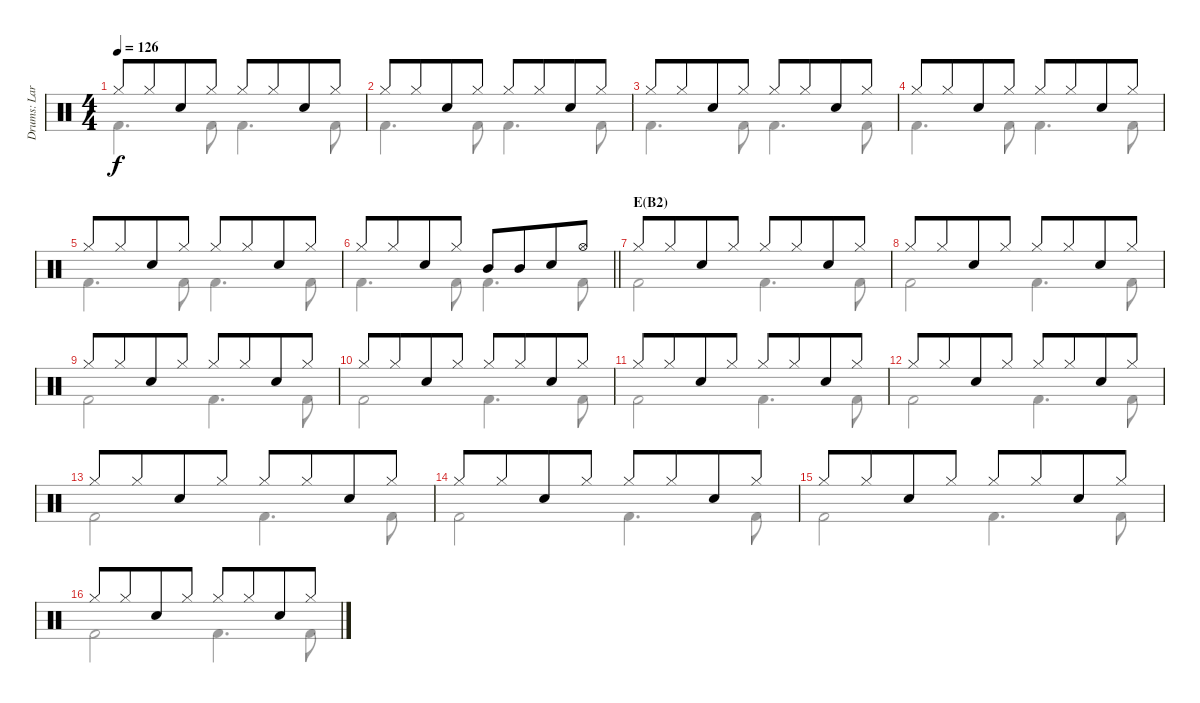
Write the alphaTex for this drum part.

\track ("Drums: Larrie" "Drums: Lar") {instrument percussion}
\staff {score}
\articulation defaults
\voice
\ts (4 4)
\tempo 126
\clef neutral
\ks c "Hi-Hat (closed)".8{dy f} "Hi-Hat (closed)".8{beam merge} "Snare (hit) 2".8 "Hi-Hat (closed)".8 "Hi-Hat (closed)".8 "Hi-Hat (closed)".8{beam merge} "Snare (hit) 2".8 "Hi-Hat (closed)".8
|
"Hi-Hat (closed)".8 "Hi-Hat (closed)".8{beam merge} "Snare (hit) 2".8 "Hi-Hat (closed)".8 "Hi-Hat (closed)".8 "Hi-Hat (closed)".8{beam merge} "Snare (hit) 2".8 "Hi-Hat (closed)".8 |
"Hi-Hat (closed)".8 "Hi-Hat (closed)".8{beam merge} "Snare (hit) 2".8 "Hi-Hat (closed)".8 "Hi-Hat (closed)".8 "Hi-Hat (closed)".8{beam merge} "Snare (hit) 2".8 "Hi-Hat (closed)".8 |
"Hi-Hat (closed)".8 "Hi-Hat (closed)".8{beam merge} "Snare (hit) 2".8 "Hi-Hat (closed)".8 "Hi-Hat (closed)".8 "Hi-Hat (closed)".8{beam merge} "Snare (hit) 2".8 "Hi-Hat (closed)".8 |
"Hi-Hat (closed)".8 "Hi-Hat (closed)".8{beam merge} "Snare (hit) 2".8 "Hi-Hat (closed)".8 "Hi-Hat (closed)".8 "Hi-Hat (closed)".8{beam merge} "Snare (hit) 2".8 "Hi-Hat (closed)".8 |
\barLineRight lightlight "Hi-Hat (closed)".8 "Hi-Hat (closed)".8{beam merge} "Snare (hit) 2".8 "Hi-Hat (closed)".8 "Mid Tom (hit)".8 "Mid Tom (hit)".8{beam merge} "Snare (hit) 2".8 "Hi-Hat (open)".8
|
\section ("" "E(B2)")
"Hi-Hat (closed)".8 "Hi-Hat (closed)".8{beam merge} "Snare (hit) 2".8 "Hi-Hat (closed)".8 "Hi-Hat (closed)".8 "Hi-Hat (closed)".8{beam merge} "Snare (hit) 2".8 "Hi-Hat (closed)".8 |
"Hi-Hat (closed)".8 "Hi-Hat (closed)".8{beam merge} "Snare (hit) 2".8 "Hi-Hat (closed)".8 "Hi-Hat (closed)".8 "Hi-Hat (closed)".8{beam merge} "Snare (hit) 2".8 "Hi-Hat (closed)".8 |
"Hi-Hat (closed)".8 "Hi-Hat (closed)".8{beam merge} "Snare (hit) 2".8 "Hi-Hat (closed)".8 "Hi-Hat (closed)".8 "Hi-Hat (closed)".8{beam merge} "Snare (hit) 2".8 "Hi-Hat (closed)".8 |
"Hi-Hat (closed)".8 "Hi-Hat (closed)".8{beam merge} "Snare (hit) 2".8 "Hi-Hat (closed)".8 "Hi-Hat (closed)".8 "Hi-Hat (closed)".8{beam merge} "Snare (hit) 2".8 "Hi-Hat (closed)".8 |
"Hi-Hat (closed)".8 "Hi-Hat (closed)".8{beam merge} "Snare (hit) 2".8 "Hi-Hat (closed)".8 "Hi-Hat (closed)".8 "Hi-Hat (closed)".8{beam merge} "Snare (hit) 2".8 "Hi-Hat (closed)".8 |
"Hi-Hat (closed)".8 "Hi-Hat (closed)".8{beam merge} "Snare (hit) 2".8 "Hi-Hat (closed)".8 "Hi-Hat (closed)".8 "Hi-Hat (closed)".8{beam merge} "Snare (hit) 2".8 "Hi-Hat (closed)".8 |
"Hi-Hat (closed)".8 "Hi-Hat (closed)".8{beam merge} "Snare (hit) 2".8 "Hi-Hat (closed)".8 "Hi-Hat (closed)".8 "Hi-Hat (closed)".8{beam merge} "Snare (hit) 2".8 "Hi-Hat (closed)".8 |
"Hi-Hat (closed)".8 "Hi-Hat (closed)".8{beam merge} "Snare (hit) 2".8 "Hi-Hat (closed)".8 "Hi-Hat (closed)".8 "Hi-Hat (closed)".8{beam merge} "Snare (hit) 2".8 "Hi-Hat (closed)".8 |
"Hi-Hat (closed)".8 "Hi-Hat (closed)".8{beam merge} "Snare (hit) 2".8 "Hi-Hat (closed)".8 "Hi-Hat (closed)".8 "Hi-Hat (closed)".8{beam merge} "Snare (hit) 2".8 "Hi-Hat (closed)".8 |
"Hi-Hat (closed)".8 "Hi-Hat (closed)".8{beam merge} "Snare (hit) 2".8 "Hi-Hat (closed)".8 "Hi-Hat (closed)".8 "Hi-Hat (closed)".8{beam merge} "Snare (hit) 2".8 "Hi-Hat (closed)".8
\voice
\clef neutral
\ottava regular
\simile none
\ks c "Kick (hit) 2".4{d dy f} "Kick (hit) 2".8 "Kick (hit) 2".4{d} "Kick (hit) 2".8
|
"Kick (hit) 2".4{d} "Kick (hit) 2".8 "Kick (hit) 2".4{d} "Kick (hit) 2".8 |
"Kick (hit) 2".4{d} "Kick (hit) 2".8 "Kick (hit) 2".4{d} "Kick (hit) 2".8 |
"Kick (hit) 2".4{d} "Kick (hit) 2".8 "Kick (hit) 2".4{d} "Kick (hit) 2".8 |
"Kick (hit) 2".4{d} "Kick (hit) 2".8 "Kick (hit) 2".4{d} "Kick (hit) 2".8 |
\barLineRight lightlight "Kick (hit) 2".4{d} "Kick (hit) 2".8 "Kick (hit) 2".4{d} "Kick (hit) 2".8
|
"Kick (hit) 2".2 "Kick (hit) 2".4{d} "Kick (hit) 2".8 |
"Kick (hit) 2".2 "Kick (hit) 2".4{d} "Kick (hit) 2".8 |
"Kick (hit) 2".2 "Kick (hit) 2".4{d} "Kick (hit) 2".8 |
"Kick (hit) 2".2 "Kick (hit) 2".4{d} "Kick (hit) 2".8 |
"Kick (hit) 2".2 "Kick (hit) 2".4{d} "Kick (hit) 2".8 |
"Kick (hit) 2".2 "Kick (hit) 2".4{d} "Kick (hit) 2".8 |
"Kick (hit) 2".2 "Kick (hit) 2".4{d} "Kick (hit) 2".8 |
"Kick (hit) 2".2 "Kick (hit) 2".4{d} "Kick (hit) 2".8 |
"Kick (hit) 2".2 "Kick (hit) 2".4{d} "Kick (hit) 2".8 |
"Kick (hit) 2".2 "Kick (hit) 2".4{d} "Kick (hit) 2".8
